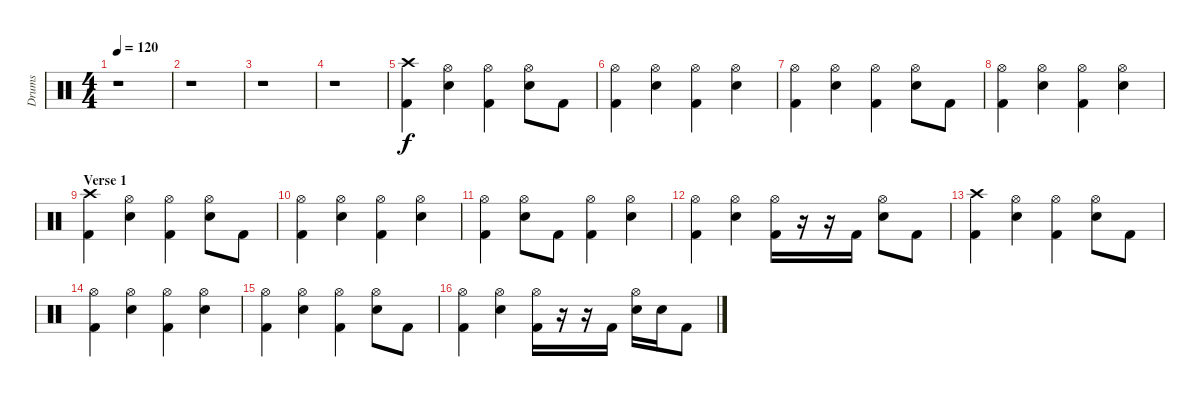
\track ("Drums" "Drums") {instrument percussion}
\staff {score}
\articulation defaults
\ts (4 4)
\tempo 120
\clef neutral
\ks c
r.1{dy f} |
r.1 |
r.1 |
r.1 |
("Crash high (hit)" "Kick (hit) 2").4 ("Hi-Hat (open)" "Electric Snare (hit)").4 ("Hi-Hat (open)" "Kick (hit) 2").4 ("Hi-Hat (open)" "Electric Snare (hit)").8 "Kick (hit) 2".8 |
("Hi-Hat (open)" "Kick (hit) 2").4 ("Hi-Hat (open)" "Electric Snare (hit)").4 ("Hi-Hat (open)" "Kick (hit) 2").4 ("Hi-Hat (open)" "Electric Snare (hit)").4 |
("Hi-Hat (open)" "Kick (hit) 2").4 ("Hi-Hat (open)" "Electric Snare (hit)").4 ("Hi-Hat (open)" "Kick (hit) 2").4 ("Hi-Hat (open)" "Electric Snare (hit)").8 "Kick (hit) 2".8 |
("Hi-Hat (open)" "Kick (hit) 2").4 ("Hi-Hat (open)" "Electric Snare (hit)").4 ("Hi-Hat (open)" "Kick (hit) 2").4 ("Hi-Hat (open)" "Electric Snare (hit)").4 |
\section ("" "Verse 1")
("Crash high (hit)" "Kick (hit) 2").4 ("Hi-Hat (open)" "Electric Snare (hit)").4 ("Hi-Hat (open)" "Kick (hit) 2").4 ("Hi-Hat (open)" "Electric Snare (hit)").8 "Kick (hit) 2".8 |
("Hi-Hat (open)" "Kick (hit) 2").4 ("Hi-Hat (open)" "Electric Snare (hit)").4 ("Hi-Hat (open)" "Kick (hit) 2").4 ("Hi-Hat (open)" "Electric Snare (hit)").4 |
("Hi-Hat (open)" "Kick (hit) 2").4 ("Hi-Hat (open)" "Electric Snare (hit)").8 "Kick (hit) 2".8 ("Hi-Hat (open)" "Kick (hit) 2").4 ("Hi-Hat (open)" "Electric Snare (hit)").4 |
("Hi-Hat (open)" "Kick (hit) 2").4 ("Hi-Hat (open)" "Electric Snare (hit)").4 ("Hi-Hat (open)" "Kick (hit) 2").16 r.16 r.16 "Kick (hit) 2".16 ("Hi-Hat (open)" "Electric Snare (hit)").8 "Kick (hit) 2".8 |
("Crash high (hit)" "Kick (hit) 2").4 ("Hi-Hat (open)" "Electric Snare (hit)").4 ("Hi-Hat (open)" "Kick (hit) 2").4 ("Hi-Hat (open)" "Electric Snare (hit)").8 "Kick (hit) 2".8 |
("Hi-Hat (open)" "Kick (hit) 2").4 ("Hi-Hat (open)" "Electric Snare (hit)").4 ("Hi-Hat (open)" "Kick (hit) 2").4 ("Hi-Hat (open)" "Electric Snare (hit)").4 |
("Hi-Hat (open)" "Kick (hit) 2").4 ("Hi-Hat (open)" "Electric Snare (hit)").4 ("Hi-Hat (open)" "Kick (hit) 2").4 ("Hi-Hat (open)" "Electric Snare (hit)").8 "Kick (hit) 2".8 |
("Hi-Hat (open)" "Kick (hit) 2").4 ("Hi-Hat (open)" "Electric Snare (hit)").4 ("Hi-Hat (open)" "Kick (hit) 2").16 r.16 r.16 "Kick (hit) 2".16 ("Hi-Hat (open)" "Electric Snare (hit)").16 "Electric Snare (hit)".16 "Kick (hit) 2".8
